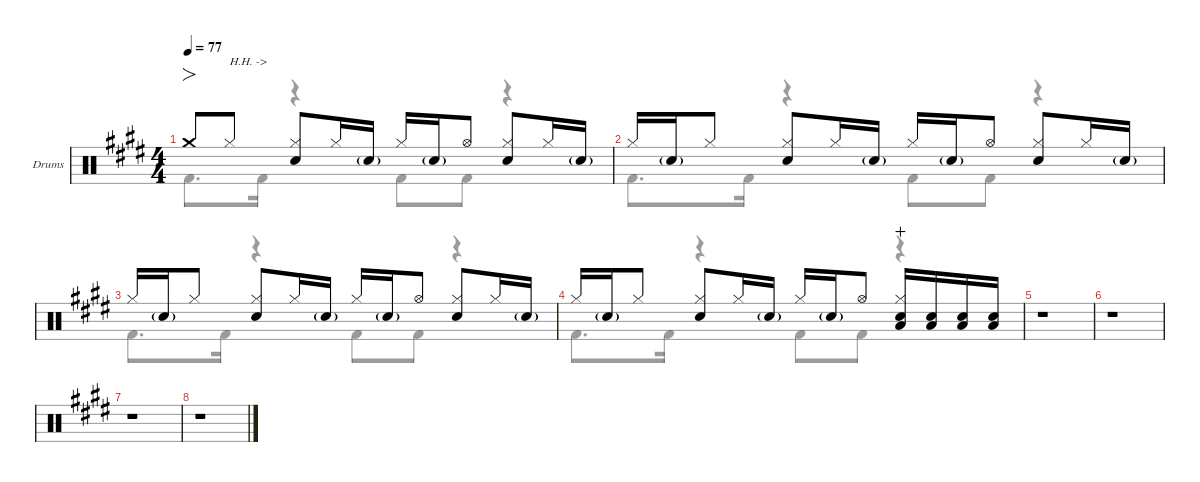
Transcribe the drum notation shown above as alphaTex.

\defaultSystemsLayout 4
\hideDynamics
\bracketExtendMode nobrackets
\firstSystemTrackNameOrientation horizontal
\track ("Drums" "Drums") {defaultSystemsLayout 4 instrument percussion}
\staff {score}
\articulation defaults
\voice
\ts (4 4)
\tempo 77
\clef neutral
\ks e "Crash medium (hit)"{acc forcenatural}.8{fo dy f} "Hi-Hat (closed)"{acc forcenatural}.8{txt "H.H. ->" dy mf}
("Hi-Hat (closed)"{acc forcenatural} "Snare (hit) 2"{acc forcenatural}).8{dy f} "Hi-Hat (closed)"{acc forcenatural}.16{dy mf} "Snare (hit) 2"{g acc forcenatural}.16 "Hi-Hat (closed)"{acc forcenatural}.16{dy f} "Snare (hit) 2"{g acc forcenatural}.16{dy mf} "Hi-Hat (open)"{acc forcenatural}.8{dy f} ("Hi-Hat (closed)"{acc forcenatural} "Snare (hit) 2"{acc forcenatural}).8 "Hi-Hat (closed)"{acc forcenatural}.16{dy mf} "Snare (hit) 2"{g acc forcenatural}.16 |
"Hi-Hat (closed)"{acc forcenatural}.16{dy f} "Snare (hit) 2"{g acc forcenatural}.16{dy mf} "Hi-Hat (closed)"{acc forcenatural}.8 ("Hi-Hat (closed)"{acc forcenatural} "Snare (hit) 2"{acc forcenatural}).8{dy f} "Hi-Hat (closed)"{acc forcenatural}.16{dy mf} "Snare (hit) 2"{g acc forcenatural}.16 "Hi-Hat (closed)"{acc forcenatural}.16{dy f} "Snare (hit) 2"{g acc forcenatural}.16{dy mf} "Hi-Hat (open)"{acc forcenatural}.8{dy f} ("Hi-Hat (closed)"{acc forcenatural} "Snare (hit) 2"{acc forcenatural}).8 "Hi-Hat (closed)"{acc forcenatural}.16{dy mf} "Snare (hit) 2"{g acc forcenatural}.16 |
"Hi-Hat (closed)"{acc forcenatural}.16{dy f} "Snare (hit) 2"{g acc forcenatural}.16{dy mf} "Hi-Hat (closed)"{acc forcenatural}.8 ("Hi-Hat (closed)"{acc forcenatural} "Snare (hit) 2"{acc forcenatural}).8{dy f} "Hi-Hat (closed)"{acc forcenatural}.16{dy mf} "Snare (hit) 2"{g acc forcenatural}.16 "Hi-Hat (closed)"{acc forcenatural}.16{dy f} "Snare (hit) 2"{g acc forcenatural}.16{dy mf} "Hi-Hat (open)"{acc forcenatural}.8{dy f} ("Hi-Hat (closed)"{acc forcenatural} "Snare (hit) 2"{acc forcenatural}).8 "Hi-Hat (closed)"{acc forcenatural}.16{dy mf} "Snare (hit) 2"{g acc forcenatural}.16 |
"Hi-Hat (closed)"{acc forcenatural}.16{dy f} "Snare (hit) 2"{g acc forcenatural}.16{dy mf} "Hi-Hat (closed)"{acc forcenatural}.8 ("Hi-Hat (closed)"{acc forcenatural} "Snare (hit) 2"{acc forcenatural}).8{dy f} "Hi-Hat (closed)"{acc forcenatural}.16{dy mf} "Snare (hit) 2"{g acc forcenatural}.16 "Hi-Hat (closed)"{acc forcenatural}.16{dy f} "Snare (hit) 2"{g acc forcenatural}.16{dy mf} "Hi-Hat (open)"{acc forcenatural}.8{dy f} ("Hi-Hat (closed)"{acc forcenatural} "Snare (hit) 2"{acc forcenatural} "Low Tom (hit)"{acc forcenatural}).16{wahc} ("Snare (hit) 2"{acc forcenatural} "Low Tom (hit)"{acc forcenatural}).16 ("Snare (hit) 2"{acc forcenatural} "Low Tom (hit)"{acc forcenatural}).16 ("Snare (hit) 2"{acc forcenatural} "Low Tom (hit)"{acc forcenatural}).16 |
r.1 |
r.1 |
r.1 |
r.1
\voice
\clef neutral
\ottava regular
\simile none
\ks e "Kick (hit) 2"{acc forcenatural}.8{d dy f} "Kick (hit) 2"{acc forcenatural}.16
r.4 "Kick (hit) 2"{acc forcenatural}.8 "Kick (hit) 2"{acc forcenatural}.8 r.4 |
"Kick (hit) 2"{acc forcenatural}.8{d} "Kick (hit) 2"{acc forcenatural}.16 r.4 "Kick (hit) 2"{acc forcenatural}.8 "Kick (hit) 2"{acc forcenatural}.8 r.4 |
"Kick (hit) 2"{acc forcenatural}.8{d} "Kick (hit) 2"{acc forcenatural}.16 r.4 "Kick (hit) 2"{acc forcenatural}.8 "Kick (hit) 2"{acc forcenatural}.8 r.4 |
"Kick (hit) 2"{acc forcenatural}.8{d} "Kick (hit) 2"{acc forcenatural}.16 r.4 "Kick (hit) 2"{acc forcenatural}.8 "Kick (hit) 2"{acc forcenatural}.8 r.4 |
r.1 |
r.1 |
r.1 |
r.1
